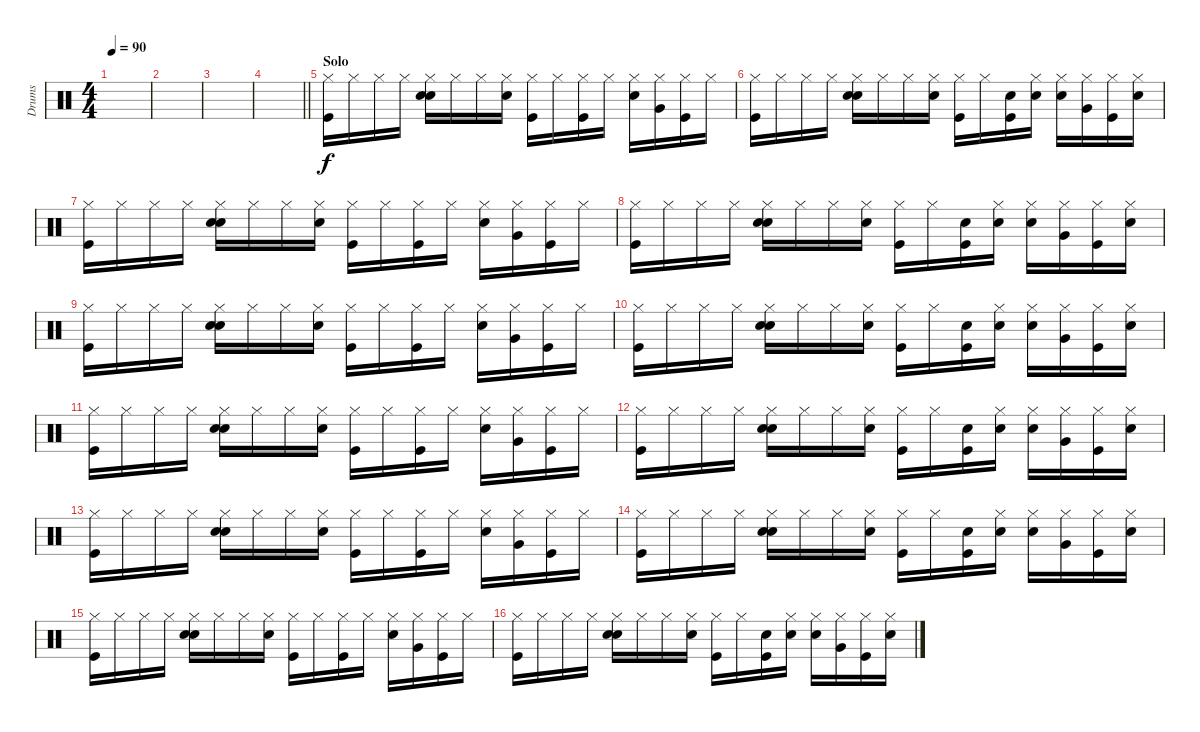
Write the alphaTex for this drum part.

\track ("Drums" "Drums") {instrument percussion}
\staff {score}
\articulation defaults
\ts (4 4)
\tempo 90
\clef neutral
\ks c
|
|
|
\barLineRight lightlight
|
\section ("" "Solo")
("Hi-Hat (closed)" "Kick (hit)").16 "Hi-Hat (closed)".16 "Hi-Hat (closed)".16 "Hi-Hat (closed)".16 ("Hi-Hat (closed)" "Electric Snare (hit)" "Hand Clap (hit)").16 "Hi-Hat (closed)".16 "Hi-Hat (closed)".16 ("Hi-Hat (closed)" "Electric Snare (hit)").16 ("Hi-Hat (closed)" "Kick (hit)").16 "Hi-Hat (closed)".16 ("Hi-Hat (closed)" "Kick (hit)").16 "Hi-Hat (closed)".16 ("Hi-Hat (closed)" "Electric Snare (hit)").16 ("Hi-Hat (closed)" "Very Low Tom (hit)").16 ("Hi-Hat (closed)" "Kick (hit)").16 "Hi-Hat (closed)".16 |
("Hi-Hat (closed)" "Kick (hit)").16 "Hi-Hat (closed)".16 "Hi-Hat (closed)".16 "Hi-Hat (closed)".16 ("Hi-Hat (closed)" "Electric Snare (hit)" "Hand Clap (hit)").16 "Hi-Hat (closed)".16 "Hi-Hat (closed)".16 ("Hi-Hat (closed)" "Electric Snare (hit)").16 ("Hi-Hat (closed)" "Kick (hit)").16 "Hi-Hat (closed)".16 ("Snare (hit)" "Kick (hit)").16 ("Hi-Hat (closed)" "Electric Snare (hit)").16 ("Hi-Hat (closed)" "Electric Snare (hit)").16 ("Hi-Hat (closed)" "Very Low Tom (hit)").16 ("Hi-Hat (closed)" "Kick (hit)").16 ("Hi-Hat (closed)" "Electric Snare (hit)").16 |
("Hi-Hat (closed)" "Kick (hit)").16 "Hi-Hat (closed)".16 "Hi-Hat (closed)".16 "Hi-Hat (closed)".16 ("Hi-Hat (closed)" "Electric Snare (hit)" "Hand Clap (hit)").16 "Hi-Hat (closed)".16 "Hi-Hat (closed)".16 ("Hi-Hat (closed)" "Electric Snare (hit)").16 ("Hi-Hat (closed)" "Kick (hit)").16 "Hi-Hat (closed)".16 ("Hi-Hat (closed)" "Kick (hit)").16 "Hi-Hat (closed)".16 ("Hi-Hat (closed)" "Electric Snare (hit)").16 ("Hi-Hat (closed)" "Very Low Tom (hit)").16 ("Hi-Hat (closed)" "Kick (hit)").16 "Hi-Hat (closed)".16 |
("Hi-Hat (closed)" "Kick (hit)").16 "Hi-Hat (closed)".16 "Hi-Hat (closed)".16 "Hi-Hat (closed)".16 ("Hi-Hat (closed)" "Electric Snare (hit)" "Hand Clap (hit)").16 "Hi-Hat (closed)".16 "Hi-Hat (closed)".16 ("Hi-Hat (closed)" "Electric Snare (hit)").16 ("Hi-Hat (closed)" "Kick (hit)").16 "Hi-Hat (closed)".16 ("Snare (hit)" "Kick (hit)").16 ("Hi-Hat (closed)" "Electric Snare (hit)").16 ("Hi-Hat (closed)" "Electric Snare (hit)").16 ("Hi-Hat (closed)" "Very Low Tom (hit)").16 ("Hi-Hat (closed)" "Kick (hit)").16 ("Hi-Hat (closed)" "Electric Snare (hit)").16 |
("Hi-Hat (closed)" "Kick (hit)").16 "Hi-Hat (closed)".16 "Hi-Hat (closed)".16 "Hi-Hat (closed)".16 ("Hi-Hat (closed)" "Electric Snare (hit)" "Hand Clap (hit)").16 "Hi-Hat (closed)".16 "Hi-Hat (closed)".16 ("Hi-Hat (closed)" "Electric Snare (hit)").16 ("Hi-Hat (closed)" "Kick (hit)").16 "Hi-Hat (closed)".16 ("Hi-Hat (closed)" "Kick (hit)").16 "Hi-Hat (closed)".16 ("Hi-Hat (closed)" "Electric Snare (hit)").16 ("Hi-Hat (closed)" "Very Low Tom (hit)").16 ("Hi-Hat (closed)" "Kick (hit)").16 "Hi-Hat (closed)".16 |
("Hi-Hat (closed)" "Kick (hit)").16 "Hi-Hat (closed)".16 "Hi-Hat (closed)".16 "Hi-Hat (closed)".16 ("Hi-Hat (closed)" "Electric Snare (hit)" "Hand Clap (hit)").16 "Hi-Hat (closed)".16 "Hi-Hat (closed)".16 ("Hi-Hat (closed)" "Electric Snare (hit)").16 ("Hi-Hat (closed)" "Kick (hit)").16 "Hi-Hat (closed)".16 ("Snare (hit)" "Kick (hit)").16 ("Hi-Hat (closed)" "Electric Snare (hit)").16 ("Hi-Hat (closed)" "Electric Snare (hit)").16 ("Hi-Hat (closed)" "Very Low Tom (hit)").16 ("Hi-Hat (closed)" "Kick (hit)").16 ("Hi-Hat (closed)" "Electric Snare (hit)").16 |
("Hi-Hat (closed)" "Kick (hit)").16 "Hi-Hat (closed)".16 "Hi-Hat (closed)".16 "Hi-Hat (closed)".16 ("Hi-Hat (closed)" "Electric Snare (hit)" "Hand Clap (hit)").16 "Hi-Hat (closed)".16 "Hi-Hat (closed)".16 ("Hi-Hat (closed)" "Electric Snare (hit)").16 ("Hi-Hat (closed)" "Kick (hit)").16 "Hi-Hat (closed)".16 ("Hi-Hat (closed)" "Kick (hit)").16 "Hi-Hat (closed)".16 ("Hi-Hat (closed)" "Electric Snare (hit)").16 ("Hi-Hat (closed)" "Very Low Tom (hit)").16 ("Hi-Hat (closed)" "Kick (hit)").16 "Hi-Hat (closed)".16 |
("Hi-Hat (closed)" "Kick (hit)").16 "Hi-Hat (closed)".16 "Hi-Hat (closed)".16 "Hi-Hat (closed)".16 ("Hi-Hat (closed)" "Electric Snare (hit)" "Hand Clap (hit)").16 "Hi-Hat (closed)".16 "Hi-Hat (closed)".16 ("Hi-Hat (closed)" "Electric Snare (hit)").16 ("Hi-Hat (closed)" "Kick (hit)").16 "Hi-Hat (closed)".16 ("Snare (hit)" "Kick (hit)").16 ("Hi-Hat (closed)" "Electric Snare (hit)").16 ("Hi-Hat (closed)" "Electric Snare (hit)").16 ("Hi-Hat (closed)" "Very Low Tom (hit)").16 ("Hi-Hat (closed)" "Kick (hit)").16 ("Hi-Hat (closed)" "Electric Snare (hit)").16 |
("Hi-Hat (closed)" "Kick (hit)").16 "Hi-Hat (closed)".16 "Hi-Hat (closed)".16 "Hi-Hat (closed)".16 ("Hi-Hat (closed)" "Electric Snare (hit)" "Hand Clap (hit)").16 "Hi-Hat (closed)".16 "Hi-Hat (closed)".16 ("Hi-Hat (closed)" "Electric Snare (hit)").16 ("Hi-Hat (closed)" "Kick (hit)").16 "Hi-Hat (closed)".16 ("Hi-Hat (closed)" "Kick (hit)").16 "Hi-Hat (closed)".16 ("Hi-Hat (closed)" "Electric Snare (hit)").16 ("Hi-Hat (closed)" "Very Low Tom (hit)").16 ("Hi-Hat (closed)" "Kick (hit)").16 "Hi-Hat (closed)".16 |
("Hi-Hat (closed)" "Kick (hit)").16 "Hi-Hat (closed)".16 "Hi-Hat (closed)".16 "Hi-Hat (closed)".16 ("Hi-Hat (closed)" "Electric Snare (hit)" "Hand Clap (hit)").16 "Hi-Hat (closed)".16 "Hi-Hat (closed)".16 ("Hi-Hat (closed)" "Electric Snare (hit)").16 ("Hi-Hat (closed)" "Kick (hit)").16 "Hi-Hat (closed)".16 ("Snare (hit)" "Kick (hit)").16 ("Hi-Hat (closed)" "Electric Snare (hit)").16 ("Hi-Hat (closed)" "Electric Snare (hit)").16 ("Hi-Hat (closed)" "Very Low Tom (hit)").16 ("Hi-Hat (closed)" "Kick (hit)").16 ("Hi-Hat (closed)" "Electric Snare (hit)").16 |
("Hi-Hat (closed)" "Kick (hit)").16 "Hi-Hat (closed)".16 "Hi-Hat (closed)".16 "Hi-Hat (closed)".16 ("Hi-Hat (closed)" "Electric Snare (hit)" "Hand Clap (hit)").16 "Hi-Hat (closed)".16 "Hi-Hat (closed)".16 ("Hi-Hat (closed)" "Electric Snare (hit)").16 ("Hi-Hat (closed)" "Kick (hit)").16 "Hi-Hat (closed)".16 ("Hi-Hat (closed)" "Kick (hit)").16 "Hi-Hat (closed)".16 ("Hi-Hat (closed)" "Electric Snare (hit)").16 ("Hi-Hat (closed)" "Very Low Tom (hit)").16 ("Hi-Hat (closed)" "Kick (hit)").16 "Hi-Hat (closed)".16 |
("Hi-Hat (closed)" "Kick (hit)").16 "Hi-Hat (closed)".16 "Hi-Hat (closed)".16 "Hi-Hat (closed)".16 ("Hi-Hat (closed)" "Electric Snare (hit)" "Hand Clap (hit)").16 "Hi-Hat (closed)".16 "Hi-Hat (closed)".16 ("Hi-Hat (closed)" "Electric Snare (hit)").16 ("Hi-Hat (closed)" "Kick (hit)").16 "Hi-Hat (closed)".16 ("Snare (hit)" "Kick (hit)").16 ("Hi-Hat (closed)" "Electric Snare (hit)").16 ("Hi-Hat (closed)" "Electric Snare (hit)").16 ("Hi-Hat (closed)" "Very Low Tom (hit)").16 ("Hi-Hat (closed)" "Kick (hit)").16 ("Hi-Hat (closed)" "Electric Snare (hit)").16
